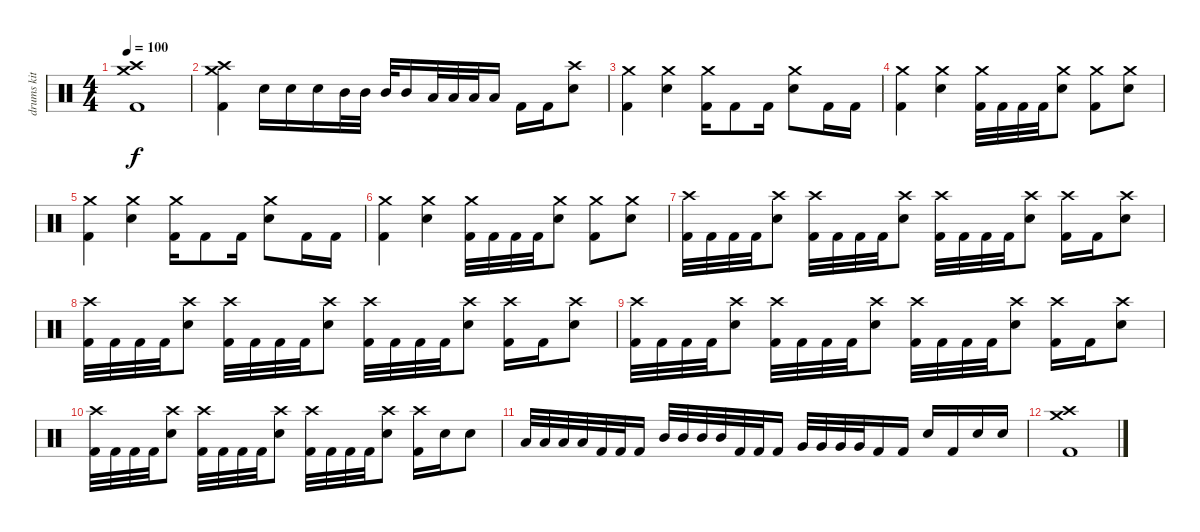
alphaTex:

\track ("drums kit" "drums kit") {instrument percussion}
\staff {score}
\articulation defaults
\ts (4 4)
\tempo 100
\clef neutral
\ks c
("Crash high (hit)" "Crash medium (hit)" "Kick (hit) 2").1{dy f} |
("Crash high (hit)" "Crash medium (hit)" "Kick (hit) 2").4 "Snare (hit) 2".16 "Snare (hit) 2".16 "Snare (hit) 2".16 "Mid Tom (hit)".32 "Mid Tom (hit)".32 "Mid Tom (hit)".32 "Mid Tom (hit)".16 "Low Tom (hit)".32 "Low Tom (hit)".32 "Low Tom (hit)".32 "Low Tom (hit)".16 "Kick (hit) 2".16 "Kick (hit) 2".16 ("Crash high (hit)" "Snare (hit) 2").8 |
("Crash medium (hit)" "Kick (hit) 2").4 ("Crash medium (hit)" "Snare (hit) 2").4 ("Crash medium (hit)" "Kick (hit) 2").16 "Kick (hit) 2".8 "Kick (hit) 2".16 ("Crash medium (hit)" "Snare (hit) 2").8 "Kick (hit) 2".16 "Kick (hit) 2".16 |
("Crash medium (hit)" "Kick (hit) 2").4 ("Crash medium (hit)" "Snare (hit) 2").4 ("Crash medium (hit)" "Kick (hit) 2").32 "Kick (hit) 2".32 "Kick (hit) 2".32 "Kick (hit) 2".32 ("Crash medium (hit)" "Snare (hit) 2").8 ("Crash medium (hit)" "Kick (hit) 2").8 ("Crash medium (hit)" "Snare (hit) 2").8 |
("Crash medium (hit)" "Kick (hit) 2").4 ("Crash medium (hit)" "Snare (hit) 2").4 ("Crash medium (hit)" "Kick (hit) 2").16 "Kick (hit) 2".8 "Kick (hit) 2".16 ("Crash medium (hit)" "Snare (hit) 2").8 "Kick (hit) 2".16 "Kick (hit) 2".16 |
("Crash medium (hit)" "Kick (hit) 2").4 ("Crash medium (hit)" "Snare (hit) 2").4 ("Crash medium (hit)" "Kick (hit) 2").32 "Kick (hit) 2".32 "Kick (hit) 2".32 "Kick (hit) 2".32 ("Crash medium (hit)" "Snare (hit) 2").8 ("Crash medium (hit)" "Kick (hit) 2").8 ("Crash medium (hit)" "Snare (hit) 2").8 |
("Crash high (hit)" "Kick (hit) 2").32 "Kick (hit) 2".32 "Kick (hit) 2".32 "Kick (hit) 2".32 ("Crash high (hit)" "Snare (hit) 2").8 ("Crash high (hit)" "Kick (hit) 2").32 "Kick (hit) 2".32 "Kick (hit) 2".32 "Kick (hit) 2".32 ("Crash high (hit)" "Snare (hit) 2").8 ("Crash high (hit)" "Kick (hit) 2").32 "Kick (hit) 2".32 "Kick (hit) 2".32 "Kick (hit) 2".32 ("Crash high (hit)" "Snare (hit) 2").8 ("Crash high (hit)" "Kick (hit) 2").16 "Kick (hit) 2".16 ("Crash high (hit)" "Snare (hit) 2").8 |
("Crash high (hit)" "Kick (hit) 2").32 "Kick (hit) 2".32 "Kick (hit) 2".32 "Kick (hit) 2".32 ("Crash high (hit)" "Snare (hit) 2").8 ("Crash high (hit)" "Kick (hit) 2").32 "Kick (hit) 2".32 "Kick (hit) 2".32 "Kick (hit) 2".32 ("Crash high (hit)" "Snare (hit) 2").8 ("Crash high (hit)" "Kick (hit) 2").32 "Kick (hit) 2".32 "Kick (hit) 2".32 "Kick (hit) 2".32 ("Crash high (hit)" "Snare (hit) 2").8 ("Crash high (hit)" "Kick (hit) 2").16 "Kick (hit) 2".16 ("Crash high (hit)" "Snare (hit) 2").8 |
("Crash high (hit)" "Kick (hit) 2").32 "Kick (hit) 2".32 "Kick (hit) 2".32 "Kick (hit) 2".32 ("Crash high (hit)" "Snare (hit) 2").8 ("Crash high (hit)" "Kick (hit) 2").32 "Kick (hit) 2".32 "Kick (hit) 2".32 "Kick (hit) 2".32 ("Crash high (hit)" "Snare (hit) 2").8 ("Crash high (hit)" "Kick (hit) 2").32 "Kick (hit) 2".32 "Kick (hit) 2".32 "Kick (hit) 2".32 ("Crash high (hit)" "Snare (hit) 2").8 ("Crash high (hit)" "Kick (hit) 2").16 "Kick (hit) 2".16 ("Crash high (hit)" "Snare (hit) 2").8 |
("Crash high (hit)" "Kick (hit) 2").32 "Kick (hit) 2".32 "Kick (hit) 2".32 "Kick (hit) 2".32 ("Crash high (hit)" "Snare (hit) 2").8 ("Crash high (hit)" "Kick (hit) 2").32 "Kick (hit) 2".32 "Kick (hit) 2".32 "Kick (hit) 2".32 ("Crash high (hit)" "Snare (hit) 2").8 ("Crash high (hit)" "Kick (hit) 2").32 "Kick (hit) 2".32 "Kick (hit) 2".32 "Kick (hit) 2".32 ("Crash high (hit)" "Snare (hit) 2").8 ("Crash high (hit)" "Kick (hit) 2").16 "Snare (hit) 2".16 "Snare (hit) 2".8 |
"Low Tom (hit)".32 "Low Tom (hit)".32 "Low Tom (hit)".32 "Low Tom (hit)".32 "Kick (hit) 2".32 "Kick (hit) 2".32 "Kick (hit) 2".16 "Mid Tom (hit)".32 "Mid Tom (hit)".32 "Mid Tom (hit)".32 "Mid Tom (hit)".32 "Kick (hit) 2".32 "Kick (hit) 2".32 "Kick (hit) 2".16 "Very Low Tom (hit)".32 "Very Low Tom (hit)".32 "Very Low Tom (hit)".32 "Very Low Tom (hit)".32 "Kick (hit) 2".16 "Kick (hit) 2".16 "Snare (hit) 2".16 "Kick (hit) 2".16 "Snare (hit) 2".16 "Snare (hit) 2".16 |
("Crash medium (hit)" "Crash high (hit)" "Kick (hit) 2").1
